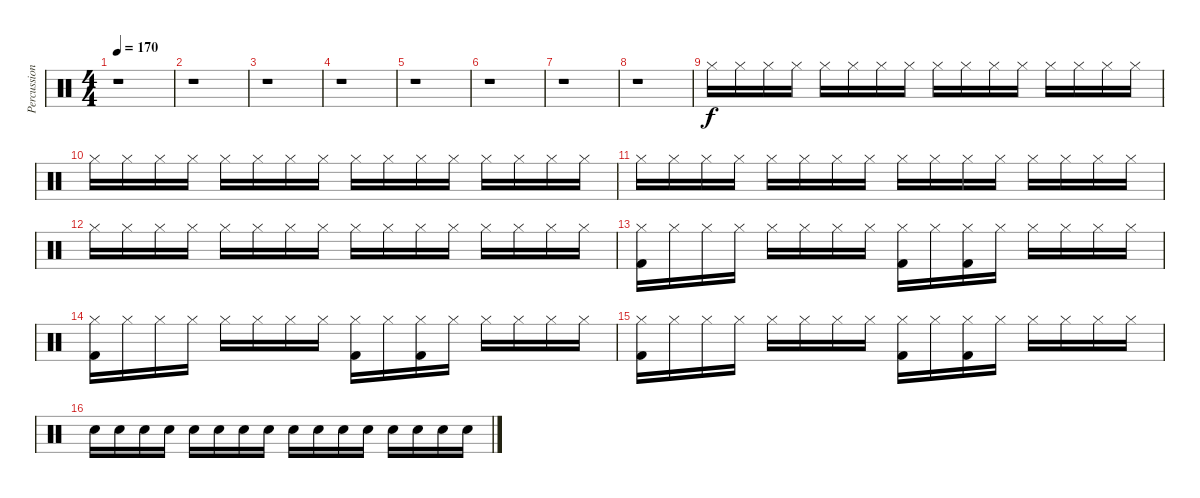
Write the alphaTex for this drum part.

\track ("Percussion" "Percussion") {instrument percussion}
\staff {score}
\articulation defaults
\ts (4 4)
\tempo 170
\clef neutral
\ks c
r.1{dy f} |
r.1 |
r.1 |
r.1 |
r.1 |
r.1 |
r.1 |
r.1 |
"Hi-Hat (closed)".16 "Hi-Hat (closed)".16 "Hi-Hat (closed)".16 "Hi-Hat (closed)".16 "Hi-Hat (closed)".16 "Hi-Hat (closed)".16 "Hi-Hat (closed)".16 "Hi-Hat (closed)".16 "Hi-Hat (closed)".16 "Hi-Hat (closed)".16 "Hi-Hat (closed)".16 "Hi-Hat (closed)".16 "Hi-Hat (closed)".16 "Hi-Hat (closed)".16 "Hi-Hat (closed)".16 "Hi-Hat (closed)".16 |
"Hi-Hat (closed)".16 "Hi-Hat (closed)".16 "Hi-Hat (closed)".16 "Hi-Hat (closed)".16 "Hi-Hat (closed)".16 "Hi-Hat (closed)".16 "Hi-Hat (closed)".16 "Hi-Hat (closed)".16 "Hi-Hat (closed)".16 "Hi-Hat (closed)".16 "Hi-Hat (closed)".16 "Hi-Hat (closed)".16 "Hi-Hat (closed)".16 "Hi-Hat (closed)".16 "Hi-Hat (closed)".16 "Hi-Hat (closed)".16 |
"Hi-Hat (closed)".16 "Hi-Hat (closed)".16 "Hi-Hat (closed)".16 "Hi-Hat (closed)".16 "Hi-Hat (closed)".16 "Hi-Hat (closed)".16 "Hi-Hat (closed)".16 "Hi-Hat (closed)".16 "Hi-Hat (closed)".16 "Hi-Hat (closed)".16 "Hi-Hat (closed)".16 "Hi-Hat (closed)".16 "Hi-Hat (closed)".16 "Hi-Hat (closed)".16 "Hi-Hat (closed)".16 "Hi-Hat (closed)".16 |
"Hi-Hat (closed)".16 "Hi-Hat (closed)".16 "Hi-Hat (closed)".16 "Hi-Hat (closed)".16 "Hi-Hat (closed)".16 "Hi-Hat (closed)".16 "Hi-Hat (closed)".16 "Hi-Hat (closed)".16 "Hi-Hat (closed)".16 "Hi-Hat (closed)".16 "Hi-Hat (closed)".16 "Hi-Hat (closed)".16 "Hi-Hat (closed)".16 "Hi-Hat (closed)".16 "Hi-Hat (closed)".16 "Hi-Hat (closed)".16 |
("Hi-Hat (closed)" "Kick (hit) 2").16 "Hi-Hat (closed)".16 "Hi-Hat (closed)".16 "Hi-Hat (closed)".16 "Hi-Hat (closed)".16 "Hi-Hat (closed)".16 "Hi-Hat (closed)".16 "Hi-Hat (closed)".16 ("Hi-Hat (closed)" "Kick (hit) 2").16 "Hi-Hat (closed)".16 ("Hi-Hat (closed)" "Kick (hit) 2").16 "Hi-Hat (closed)".16 "Hi-Hat (closed)".16 "Hi-Hat (closed)".16 "Hi-Hat (closed)".16 "Hi-Hat (closed)".16 |
("Hi-Hat (closed)" "Kick (hit) 2").16 "Hi-Hat (closed)".16 "Hi-Hat (closed)".16 "Hi-Hat (closed)".16 "Hi-Hat (closed)".16 "Hi-Hat (closed)".16 "Hi-Hat (closed)".16 "Hi-Hat (closed)".16 ("Hi-Hat (closed)" "Kick (hit) 2").16 "Hi-Hat (closed)".16 ("Hi-Hat (closed)" "Kick (hit) 2").16 "Hi-Hat (closed)".16 "Hi-Hat (closed)".16 "Hi-Hat (closed)".16 "Hi-Hat (closed)".16 "Hi-Hat (closed)".16 |
("Hi-Hat (closed)" "Kick (hit) 2").16 "Hi-Hat (closed)".16 "Hi-Hat (closed)".16 "Hi-Hat (closed)".16 "Hi-Hat (closed)".16 "Hi-Hat (closed)".16 "Hi-Hat (closed)".16 "Hi-Hat (closed)".16 ("Hi-Hat (closed)" "Kick (hit) 2").16 "Hi-Hat (closed)".16 ("Hi-Hat (closed)" "Kick (hit) 2").16 "Hi-Hat (closed)".16 "Hi-Hat (closed)".16 "Hi-Hat (closed)".16 "Hi-Hat (closed)".16 "Hi-Hat (closed)".16 |
"Snare (hit) 2".16 "Snare (hit) 2".16 "Snare (hit) 2".16 "Snare (hit) 2".16 "Snare (hit) 2".16 "Snare (hit) 2".16 "Snare (hit) 2".16 "Snare (hit) 2".16 "Snare (hit) 2".16 "Snare (hit) 2".16 "Snare (hit) 2".16 "Snare (hit) 2".16 "Snare (hit) 2".16 "Snare (hit) 2".16 "Snare (hit) 2".16 "Snare (hit) 2".16
